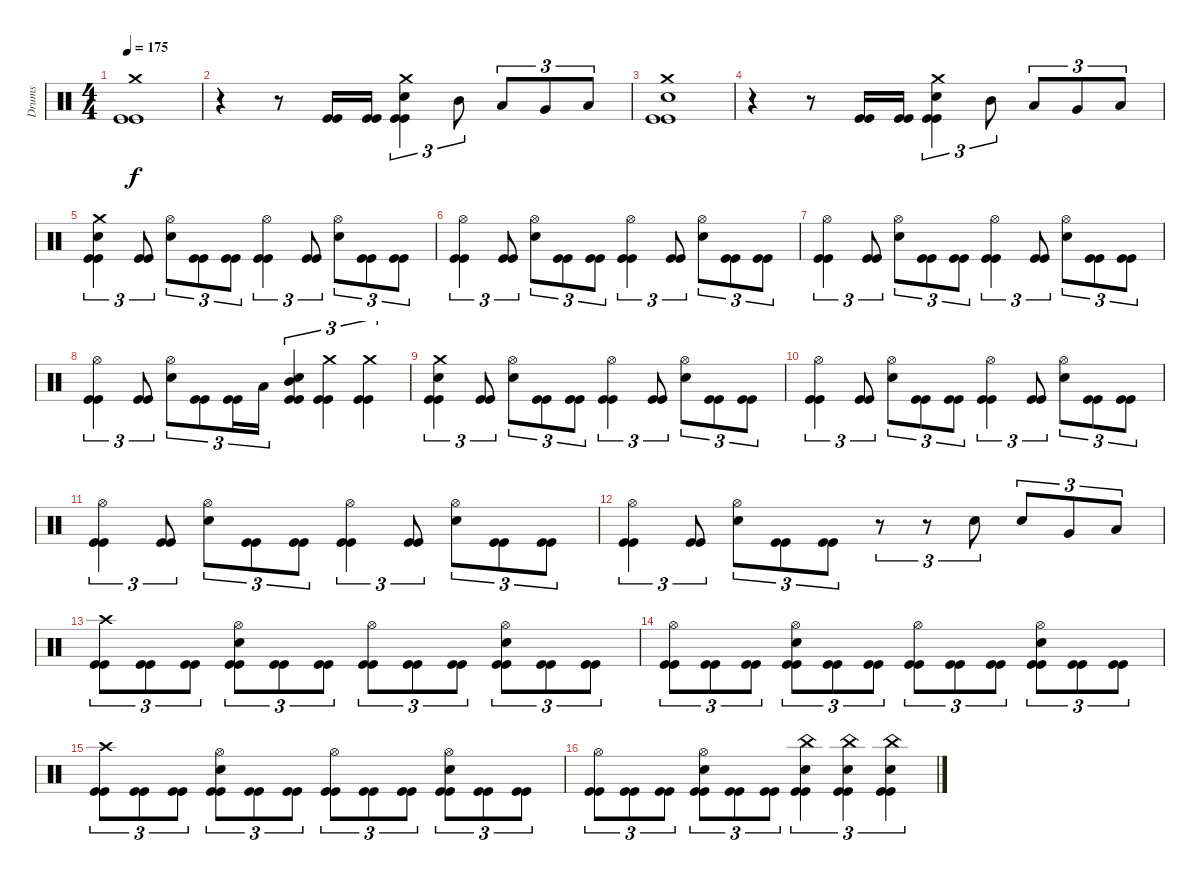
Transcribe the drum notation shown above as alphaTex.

\track ("Drums" "Drums") {instrument percussion}
\staff {score}
\articulation defaults
\ts (4 4)
\tempo 175
\clef neutral
\ks c
("Crash medium (hit)" "Kick (hit)" "Kick (hit)").1{dy f} |
r.4 r.8 ("Kick (hit)" "Kick (hit)").16 ("Kick (hit)" "Kick (hit)").16 ("Kick (hit)" "Kick (hit)" "Snare (hit) 2" "Crash medium (hit)").4{tu (3 2)} "Mid Tom (hit)".8{tu (3 2)} "Low Tom (hit)".8{tu (3 2)} "Very Low Tom (hit)".8{tu (3 2)} "Low Floor Tom (hit)".8{tu (3 2)} |
("Kick (hit)" "Kick (hit)" "Snare (hit) 2" "Crash medium (hit)").1 |
r.4 r.8 ("Kick (hit)" "Kick (hit)").16 ("Kick (hit)" "Kick (hit)").16 ("Kick (hit)" "Kick (hit)" "Snare (hit) 2" "Crash medium (hit)").4{tu (3 2)} "Mid Tom (hit)".8{tu (3 2)} "Low Tom (hit)".8{tu (3 2)} "Very Low Tom (hit)".8{tu (3 2)} "Low Floor Tom (hit)".8{tu (3 2)} |
("Kick (hit)" "Kick (hit)" "Snare (hit) 2" "Crash medium (hit)").4{tu (3 2)} ("Kick (hit)" "Kick (hit)").8{tu (3 2)} ("Snare (hit) 2" "Hi-Hat (open)").8{tu (3 2)} ("Kick (hit)" "Kick (hit)").8{tu (3 2)} ("Kick (hit)" "Kick (hit)").8{tu (3 2)} ("Kick (hit)" "Kick (hit)" "Hi-Hat (open)").4{tu (3 2)} ("Kick (hit)" "Kick (hit)").8{tu (3 2)} ("Snare (hit) 2" "Hi-Hat (open)").8{tu (3 2)} ("Kick (hit)" "Kick (hit)").8{tu (3 2)} ("Kick (hit)" "Kick (hit)").8{tu (3 2)} |
("Kick (hit)" "Kick (hit)" "Hi-Hat (open)").4{tu (3 2)} ("Kick (hit)" "Kick (hit)").8{tu (3 2)} ("Snare (hit) 2" "Hi-Hat (open)").8{tu (3 2)} ("Kick (hit)" "Kick (hit)").8{tu (3 2)} ("Kick (hit)" "Kick (hit)").8{tu (3 2)} ("Kick (hit)" "Kick (hit)" "Hi-Hat (open)").4{tu (3 2)} ("Kick (hit)" "Kick (hit)").8{tu (3 2)} ("Snare (hit) 2" "Hi-Hat (open)").8{tu (3 2)} ("Kick (hit)" "Kick (hit)").8{tu (3 2)} ("Kick (hit)" "Kick (hit)").8{tu (3 2)} |
("Kick (hit)" "Kick (hit)" "Hi-Hat (open)").4{tu (3 2)} ("Kick (hit)" "Kick (hit)").8{tu (3 2)} ("Snare (hit) 2" "Hi-Hat (open)").8{tu (3 2)} ("Kick (hit)" "Kick (hit)").8{tu (3 2)} ("Kick (hit)" "Kick (hit)").8{tu (3 2)} ("Kick (hit)" "Kick (hit)" "Hi-Hat (open)").4{tu (3 2)} ("Kick (hit)" "Kick (hit)").8{tu (3 2)} ("Snare (hit) 2" "Hi-Hat (open)").8{tu (3 2)} ("Kick (hit)" "Kick (hit)").8{tu (3 2)} ("Kick (hit)" "Kick (hit)").8{tu (3 2)} |
("Kick (hit)" "Kick (hit)" "Hi-Hat (open)").4{tu (3 2)} ("Kick (hit)" "Kick (hit)").8{tu (3 2)} ("Snare (hit) 2" "Hi-Hat (open)").8{tu (3 2)} ("Kick (hit)" "Kick (hit)").8{tu (3 2)} ("Kick (hit)" "Kick (hit)").16{tu (3 2)} "Low Floor Tom (hit)".16{tu (3 2)} ("Kick (hit)" "Kick (hit)" "Mid Tom (hit)" "Snare (hit) 2").4{tu (3 2)} ("Kick (hit)" "Kick (hit)" "Crash medium (hit)").4{tu (3 2)} ("Kick (hit)" "Kick (hit)" "Crash medium (hit)").4{tu (3 2)} |
("Kick (hit)" "Kick (hit)" "Snare (hit) 2" "Crash medium (hit)").4{tu (3 2)} ("Kick (hit)" "Kick (hit)").8{tu (3 2)} ("Snare (hit) 2" "Hi-Hat (open)").8{tu (3 2)} ("Kick (hit)" "Kick (hit)").8{tu (3 2)} ("Kick (hit)" "Kick (hit)").8{tu (3 2)} ("Kick (hit)" "Kick (hit)" "Hi-Hat (open)").4{tu (3 2)} ("Kick (hit)" "Kick (hit)").8{tu (3 2)} ("Snare (hit) 2" "Hi-Hat (open)").8{tu (3 2)} ("Kick (hit)" "Kick (hit)").8{tu (3 2)} ("Kick (hit)" "Kick (hit)").8{tu (3 2)} |
("Kick (hit)" "Kick (hit)" "Hi-Hat (open)").4{tu (3 2)} ("Kick (hit)" "Kick (hit)").8{tu (3 2)} ("Snare (hit) 2" "Hi-Hat (open)").8{tu (3 2)} ("Kick (hit)" "Kick (hit)").8{tu (3 2)} ("Kick (hit)" "Kick (hit)").8{tu (3 2)} ("Kick (hit)" "Kick (hit)" "Hi-Hat (open)").4{tu (3 2)} ("Kick (hit)" "Kick (hit)").8{tu (3 2)} ("Snare (hit) 2" "Hi-Hat (open)").8{tu (3 2)} ("Kick (hit)" "Kick (hit)").8{tu (3 2)} ("Kick (hit)" "Kick (hit)").8{tu (3 2)} |
("Kick (hit)" "Kick (hit)" "Hi-Hat (open)").4{tu (3 2)} ("Kick (hit)" "Kick (hit)").8{tu (3 2)} ("Snare (hit) 2" "Hi-Hat (open)").8{tu (3 2)} ("Kick (hit)" "Kick (hit)").8{tu (3 2)} ("Kick (hit)" "Kick (hit)").8{tu (3 2)} ("Kick (hit)" "Kick (hit)" "Hi-Hat (open)").4{tu (3 2)} ("Kick (hit)" "Kick (hit)").8{tu (3 2)} ("Snare (hit) 2" "Hi-Hat (open)").8{tu (3 2)} ("Kick (hit)" "Kick (hit)").8{tu (3 2)} ("Kick (hit)" "Kick (hit)").8{tu (3 2)} |
("Kick (hit)" "Kick (hit)" "Hi-Hat (open)").4{tu (3 2)} ("Kick (hit)" "Kick (hit)").8{tu (3 2)} ("Snare (hit) 2" "Hi-Hat (open)").8{tu (3 2)} ("Kick (hit)" "Kick (hit)").8{tu (3 2)} ("Kick (hit)" "Kick (hit)").8{tu (3 2)} r.8{tu (3 2)} r.8{tu (3 2)} "Snare (hit) 2".8{tu (3 2)} "Snare (hit) 2".8{tu (3 2)} "Very Low Tom (hit)".8{tu (3 2)} "Low Floor Tom (hit)".8{tu (3 2)} |
("Kick (hit)" "Kick (hit)" "Crash high (hit)").8{tu (3 2)} ("Kick (hit)" "Kick (hit)").8{tu (3 2)} ("Kick (hit)" "Kick (hit)").8{tu (3 2)} ("Kick (hit)" "Kick (hit)" "Snare (hit) 2" "Hi-Hat (open)").8{tu (3 2)} ("Kick (hit)" "Kick (hit)").8{tu (3 2)} ("Kick (hit)" "Kick (hit)").8{tu (3 2)} ("Kick (hit)" "Kick (hit)" "Hi-Hat (open)").8{tu (3 2)} ("Kick (hit)" "Kick (hit)").8{tu (3 2)} ("Kick (hit)" "Kick (hit)").8{tu (3 2)} ("Kick (hit)" "Kick (hit)" "Snare (hit) 2" "Hi-Hat (open)").8{tu (3 2)} ("Kick (hit)" "Kick (hit)").8{tu (3 2)} ("Kick (hit)" "Kick (hit)").8{tu (3 2)} |
("Kick (hit)" "Kick (hit)" "Hi-Hat (open)").8{tu (3 2)} ("Kick (hit)" "Kick (hit)").8{tu (3 2)} ("Kick (hit)" "Kick (hit)").8{tu (3 2)} ("Kick (hit)" "Kick (hit)" "Snare (hit) 2" "Hi-Hat (open)").8{tu (3 2)} ("Kick (hit)" "Kick (hit)").8{tu (3 2)} ("Kick (hit)" "Kick (hit)").8{tu (3 2)} ("Kick (hit)" "Kick (hit)" "Hi-Hat (open)").8{tu (3 2)} ("Kick (hit)" "Kick (hit)").8{tu (3 2)} ("Kick (hit)" "Kick (hit)").8{tu (3 2)} ("Kick (hit)" "Kick (hit)" "Snare (hit) 2" "Hi-Hat (open)").8{tu (3 2)} ("Kick (hit)" "Kick (hit)").8{tu (3 2)} ("Kick (hit)" "Kick (hit)").8{tu (3 2)} |
("Kick (hit)" "Kick (hit)" "Crash high (hit)").8{tu (3 2)} ("Kick (hit)" "Kick (hit)").8{tu (3 2)} ("Kick (hit)" "Kick (hit)").8{tu (3 2)} ("Kick (hit)" "Kick (hit)" "Snare (hit) 2" "Hi-Hat (open)").8{tu (3 2)} ("Kick (hit)" "Kick (hit)").8{tu (3 2)} ("Kick (hit)" "Kick (hit)").8{tu (3 2)} ("Kick (hit)" "Kick (hit)" "Hi-Hat (open)").8{tu (3 2)} ("Kick (hit)" "Kick (hit)").8{tu (3 2)} ("Kick (hit)" "Kick (hit)").8{tu (3 2)} ("Kick (hit)" "Kick (hit)" "Snare (hit) 2" "Hi-Hat (open)").8{tu (3 2)} ("Kick (hit)" "Kick (hit)").8{tu (3 2)} ("Kick (hit)" "Kick (hit)").8{tu (3 2)} |
("Kick (hit)" "Kick (hit)" "Hi-Hat (open)").8{tu (3 2)} ("Kick (hit)" "Kick (hit)").8{tu (3 2)} ("Kick (hit)" "Kick (hit)").8{tu (3 2)} ("Kick (hit)" "Kick (hit)" "Snare (hit) 2" "Hi-Hat (open)").8{tu (3 2)} ("Kick (hit)" "Kick (hit)").8{tu (3 2)} ("Kick (hit)" "Kick (hit)").8{tu (3 2)} ("Kick (hit)" "Kick (hit)" "Snare (hit) 2" "China (hit)").4{tu (3 2)} ("Kick (hit)" "Kick (hit)" "Snare (hit) 2" "China (hit)").4{tu (3 2)} ("Kick (hit)" "Kick (hit)" "Snare (hit) 2" "China (hit)").4{tu (3 2)}
